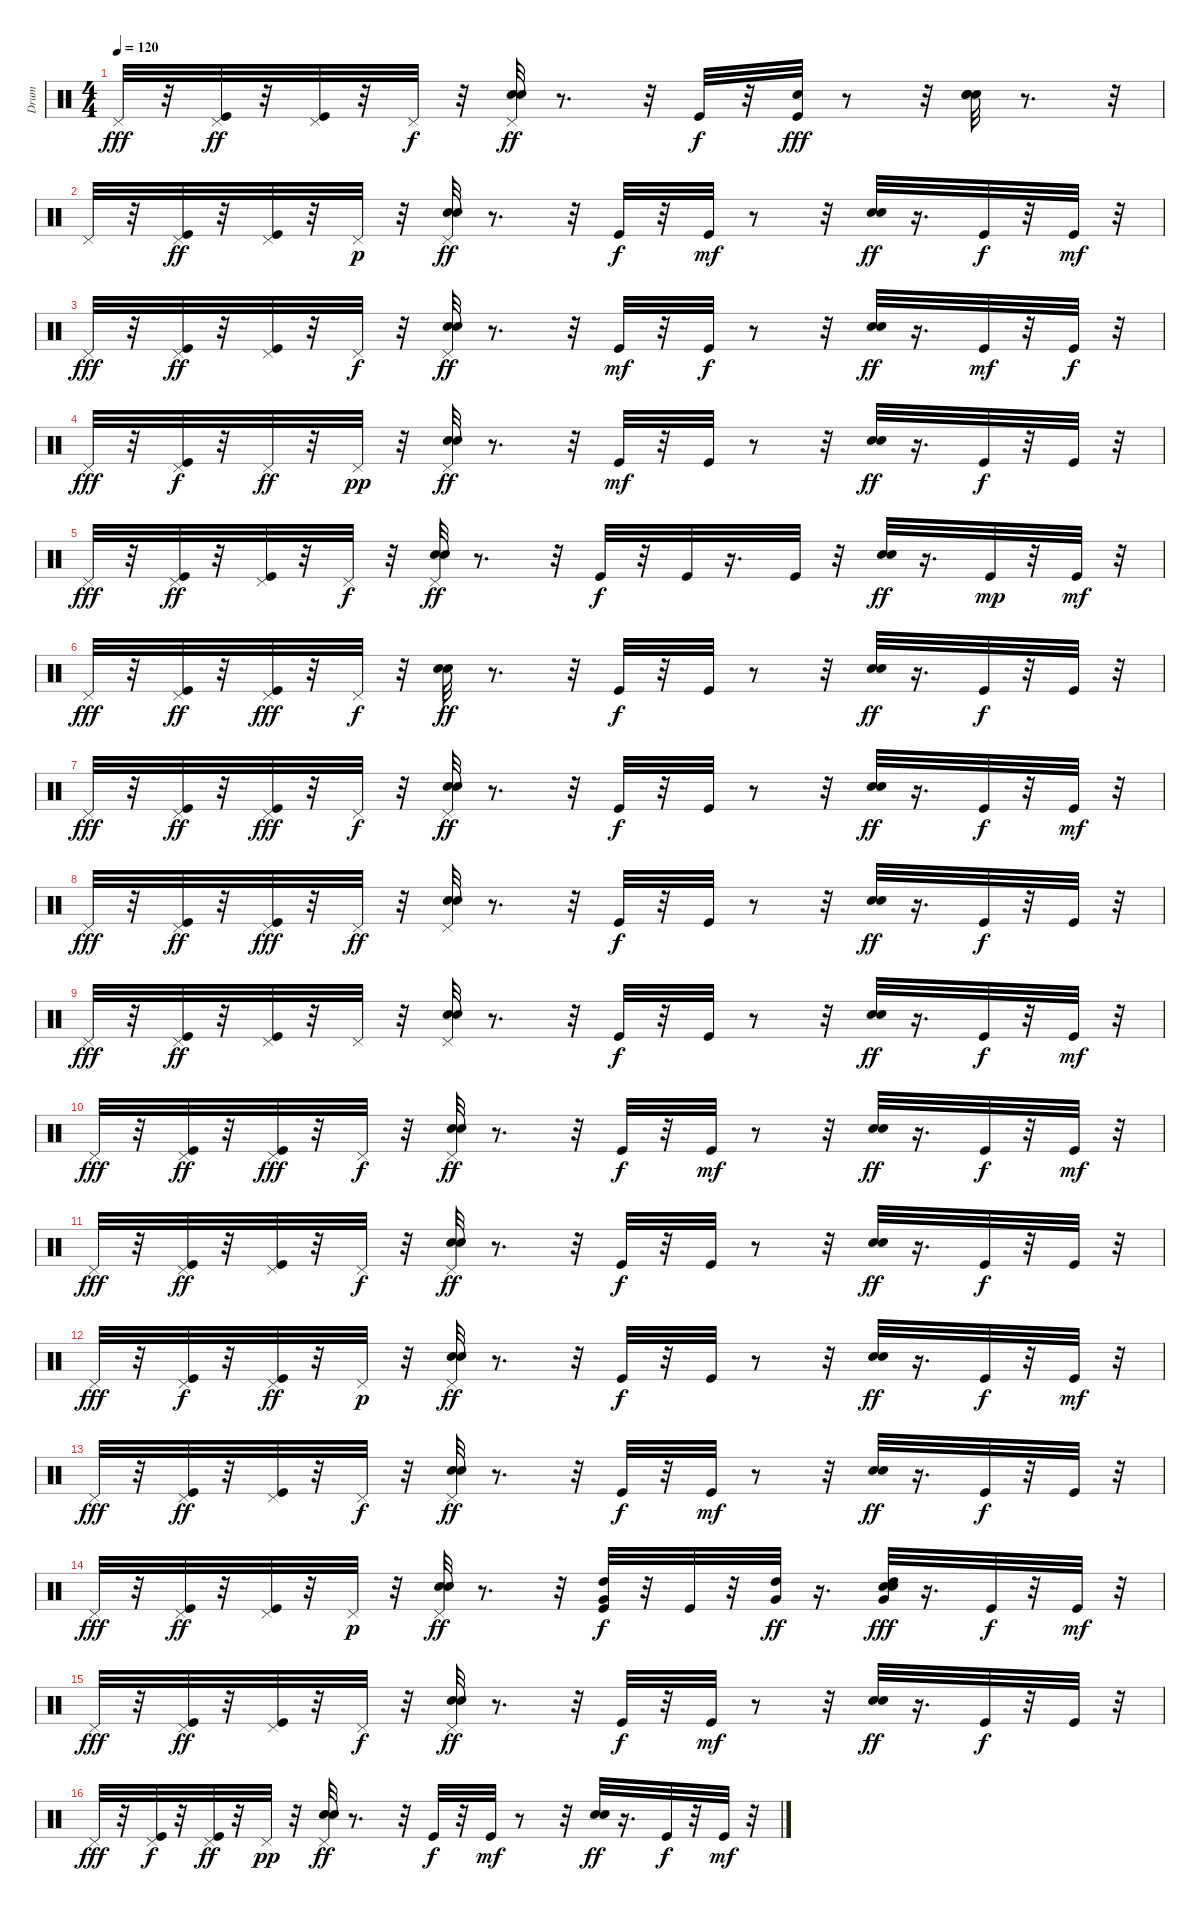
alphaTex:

\track ("Drum" "Drum") {instrument percussion}
\staff {score}
\articulation defaults
\ts (4 4)
\tempo 120
\clef neutral
\ks c "Pedal Hi-Hat (hit)".32{dy fff}
r.32 ("Kick (hit)" "Pedal Hi-Hat (hit)").32{dy ff} r.32 ("Kick (hit)" "Pedal Hi-Hat (hit)").32 r.32 "Pedal Hi-Hat (hit)".32{dy f} r.32 ("Pedal Hi-Hat (hit)" "Snare (hit) 2" "Electric Snare (hit)").32{dy ff} r.8{d} r.32 "Kick (hit)".32{dy f} r.32 ("Kick (hit)" "Hand Clap (hit)").32{dy fff} r.8 r.32 ("Snare (hit) 2" "Electric Snare (hit)" "Hand Clap (hit)").32 r.8{d} r.32 |
"Pedal Hi-Hat (hit)".32 r.32 ("Kick (hit)" "Pedal Hi-Hat (hit)").32{dy ff} r.32 ("Kick (hit)" "Pedal Hi-Hat (hit)").32 r.32 "Pedal Hi-Hat (hit)".32{dy p} r.32 ("Snare (hit) 2" "Electric Snare (hit)" "Pedal Hi-Hat (hit)").32{dy ff} r.8{d} r.32 "Kick (hit)".32{dy f} r.32 "Kick (hit)".32{dy mf} r.8 r.32 ("Snare (hit) 2" "Electric Snare (hit)").32{dy ff} r.16{d} "Kick (hit)".32{dy f} r.32 "Kick (hit)".32{dy mf} r.32 |
"Pedal Hi-Hat (hit)".32{dy fff} r.32 ("Pedal Hi-Hat (hit)" "Kick (hit)").32{dy ff} r.32 ("Kick (hit)" "Pedal Hi-Hat (hit)").32 r.32 "Pedal Hi-Hat (hit)".32{dy f} r.32 ("Snare (hit) 2" "Electric Snare (hit)" "Pedal Hi-Hat (hit)").32{dy ff} r.8{d} r.32 "Kick (hit)".32{dy mf} r.32 "Kick (hit)".32{dy f} r.8 r.32 ("Snare (hit) 2" "Electric Snare (hit)").32{dy ff} r.16{d} "Kick (hit)".32{dy mf} r.32 "Kick (hit)".32{dy f} r.32 |
"Pedal Hi-Hat (hit)".32{dy fff} r.32 ("Pedal Hi-Hat (hit)" "Kick (hit)").32{dy f} r.32 "Pedal Hi-Hat (hit)".32{dy ff} r.32 "Pedal Hi-Hat (hit)".32{dy pp} r.32 ("Snare (hit) 2" "Electric Snare (hit)" "Pedal Hi-Hat (hit)").32{dy ff} r.8{d} r.32 "Kick (hit)".32{dy mf} r.32 "Kick (hit)".32 r.8 r.32 ("Electric Snare (hit)" "Snare (hit) 2").32{dy ff} r.16{d} "Kick (hit)".32{dy f} r.32 "Kick (hit)".32 r.32 |
"Pedal Hi-Hat (hit)".32{dy fff} r.32 ("Kick (hit)" "Pedal Hi-Hat (hit)").32{dy ff} r.32 ("Kick (hit)" "Pedal Hi-Hat (hit)").32 r.32 "Pedal Hi-Hat (hit)".32{dy f} r.32 ("Snare (hit) 2" "Electric Snare (hit)" "Pedal Hi-Hat (hit)").32{dy ff} r.8{d} r.32 "Kick (hit)".32{dy f} r.32 "Kick (hit)".32 r.16{d} "Kick (hit)".32 r.32 ("Snare (hit) 2" "Electric Snare (hit)").32{dy ff} r.16{d} "Kick (hit)".32{dy mp} r.32 "Kick (hit)".32{dy mf} r.32 |
"Pedal Hi-Hat (hit)".32{dy fff} r.32 ("Kick (hit)" "Pedal Hi-Hat (hit)").32{dy ff} r.32 ("Kick (hit)" "Pedal Hi-Hat (hit)").32{dy fff} r.32 "Pedal Hi-Hat (hit)".32{dy f} r.32 ("Snare (hit) 2" "Electric Snare (hit)").32{dy ff} r.8{d} r.32 "Kick (hit)".32{dy f} r.32 "Kick (hit)".32 r.8 r.32 ("Snare (hit) 2" "Electric Snare (hit)").32{dy ff} r.16{d} "Kick (hit)".32{dy f} r.32 "Kick (hit)".32 r.32 |
"Pedal Hi-Hat (hit)".32{dy fff} r.32 ("Kick (hit)" "Pedal Hi-Hat (hit)").32{dy ff} r.32 ("Kick (hit)" "Pedal Hi-Hat (hit)").32{dy fff} r.32 "Pedal Hi-Hat (hit)".32{dy f} r.32 ("Snare (hit) 2" "Electric Snare (hit)" "Pedal Hi-Hat (hit)").32{dy ff} r.8{d} r.32 "Kick (hit)".32{dy f} r.32 "Kick (hit)".32 r.8 r.32 ("Electric Snare (hit)" "Snare (hit) 2").32{dy ff} r.16{d} "Kick (hit)".32{dy f} r.32 "Kick (hit)".32{dy mf} r.32 |
"Pedal Hi-Hat (hit)".32{dy fff} r.32 ("Kick (hit)" "Pedal Hi-Hat (hit)").32{dy ff} r.32 ("Kick (hit)" "Pedal Hi-Hat (hit)").32{dy fff} r.32 "Pedal Hi-Hat (hit)".32{dy ff} r.32 ("Snare (hit) 2" "Electric Snare (hit)" "Pedal Hi-Hat (hit)").32 r.8{d} r.32 "Kick (hit)".32{dy f} r.32 "Kick (hit)".32 r.8 r.32 ("Snare (hit) 2" "Electric Snare (hit)").32{dy ff} r.16{d} "Kick (hit)".32{dy f} r.32 "Kick (hit)".32 r.32 |
"Pedal Hi-Hat (hit)".32{dy fff} r.32 ("Kick (hit)" "Pedal Hi-Hat (hit)").32{dy ff} r.32 ("Kick (hit)" "Pedal Hi-Hat (hit)").32 r.32 "Pedal Hi-Hat (hit)".32 r.32 ("Snare (hit) 2" "Electric Snare (hit)" "Pedal Hi-Hat (hit)").32 r.8{d} r.32 "Kick (hit)".32{dy f} r.32 "Kick (hit)".32 r.8 r.32 ("Snare (hit) 2" "Electric Snare (hit)").32{dy ff} r.16{d} "Kick (hit)".32{dy f} r.32 "Kick (hit)".32{dy mf} r.32 |
"Pedal Hi-Hat (hit)".32{dy fff} r.32 ("Kick (hit)" "Pedal Hi-Hat (hit)").32{dy ff} r.32 ("Kick (hit)" "Pedal Hi-Hat (hit)").32{dy fff} r.32 "Pedal Hi-Hat (hit)".32{dy f} r.32 ("Snare (hit) 2" "Electric Snare (hit)" "Pedal Hi-Hat (hit)").32{dy ff} r.8{d} r.32 "Kick (hit)".32{dy f} r.32 "Kick (hit)".32{dy mf} r.8 r.32 ("Snare (hit) 2" "Electric Snare (hit)").32{dy ff} r.16{d} "Kick (hit)".32{dy f} r.32 "Kick (hit)".32{dy mf} r.32 |
"Pedal Hi-Hat (hit)".32{dy fff} r.32 ("Kick (hit)" "Pedal Hi-Hat (hit)").32{dy ff} r.32 ("Kick (hit)" "Pedal Hi-Hat (hit)").32 r.32 "Pedal Hi-Hat (hit)".32{dy f} r.32 ("Snare (hit) 2" "Electric Snare (hit)" "Pedal Hi-Hat (hit)").32{dy ff} r.8{d} r.32 "Kick (hit)".32{dy f} r.32 "Kick (hit)".32 r.8 r.32 ("Snare (hit) 2" "Electric Snare (hit)").32{dy ff} r.16{d} "Kick (hit)".32{dy f} r.32 "Kick (hit)".32 r.32 |
"Pedal Hi-Hat (hit)".32{dy fff} r.32 ("Kick (hit)" "Pedal Hi-Hat (hit)").32{dy f} r.32 ("Kick (hit)" "Pedal Hi-Hat (hit)").32{dy ff} r.32 "Pedal Hi-Hat (hit)".32{dy p} r.32 ("Electric Snare (hit)" "Pedal Hi-Hat (hit)" "Snare (hit) 2").32{dy ff} r.8{d} r.32 "Kick (hit)".32{dy f} r.32 "Kick (hit)".32 r.8 r.32 ("Electric Snare (hit)" "Snare (hit) 2").32{dy ff} r.16{d} "Kick (hit)".32{dy f} r.32 "Kick (hit)".32{dy mf} r.32 |
"Pedal Hi-Hat (hit)".32{dy fff} r.32 ("Pedal Hi-Hat (hit)" "Kick (hit)").32{dy ff} r.32 ("Kick (hit)" "Pedal Hi-Hat (hit)").32 r.32 "Pedal Hi-Hat (hit)".32{dy f} r.32 ("Electric Snare (hit)" "Pedal Hi-Hat (hit)" "Snare (hit) 2").32{dy ff} r.8{d} r.32 "Kick (hit)".32{dy f} r.32 "Kick (hit)".32{dy mf} r.8 r.32 ("Snare (hit) 2" "Electric Snare (hit)").32{dy ff} r.16{d} "Kick (hit)".32{dy f} r.32 "Kick (hit)".32 r.32 |
"Pedal Hi-Hat (hit)".32{dy fff} r.32 ("Pedal Hi-Hat (hit)" "Kick (hit)").32{dy ff} r.32 ("Kick (hit)" "Pedal Hi-Hat (hit)").32 r.32 "Pedal Hi-Hat (hit)".32{dy p} r.32 ("Snare (hit) 2" "Electric Snare (hit)" "Pedal Hi-Hat (hit)").32{dy ff} r.8{d} r.32 ("High Tom (hit)" "Very Low Tom (hit)" "Kick (hit)").32{dy f} r.32 "Kick (hit)".32 r.32 ("Very Low Tom (hit)" "High Tom (hit)").32{dy ff} r.16{d} ("High Tom (hit)" "Snare (hit) 2" "Electric Snare (hit)" "Very Low Tom (hit)").32{dy fff} r.16{d} "Kick (hit)".32{dy f} r.32 "Kick (hit)".32{dy mf} r.32 |
"Pedal Hi-Hat (hit)".32{dy fff} r.32 ("Kick (hit)" "Pedal Hi-Hat (hit)").32{dy ff} r.32 ("Kick (hit)" "Pedal Hi-Hat (hit)").32 r.32 "Pedal Hi-Hat (hit)".32{dy f} r.32 ("Snare (hit) 2" "Electric Snare (hit)" "Pedal Hi-Hat (hit)").32{dy ff} r.8{d} r.32 "Kick (hit)".32{dy f} r.32 "Kick (hit)".32{dy mf} r.8 r.32 ("Snare (hit) 2" "Electric Snare (hit)").32{dy ff} r.16{d} "Kick (hit)".32{dy f} r.32 "Kick (hit)".32 r.32 |
"Pedal Hi-Hat (hit)".32{dy fff} r.32 ("Kick (hit)" "Pedal Hi-Hat (hit)").32{dy f} r.32 ("Kick (hit)" "Pedal Hi-Hat (hit)").32{dy ff} r.32 "Pedal Hi-Hat (hit)".32{dy pp} r.32 ("Snare (hit) 2" "Electric Snare (hit)" "Pedal Hi-Hat (hit)").32{dy ff} r.8{d} r.32 "Kick (hit)".32{dy f} r.32 "Kick (hit)".32{dy mf} r.8 r.32 ("Snare (hit) 2" "Electric Snare (hit)").32{dy ff} r.16{d} "Kick (hit)".32{dy f} r.32 "Kick (hit)".32{dy mf} r.32
